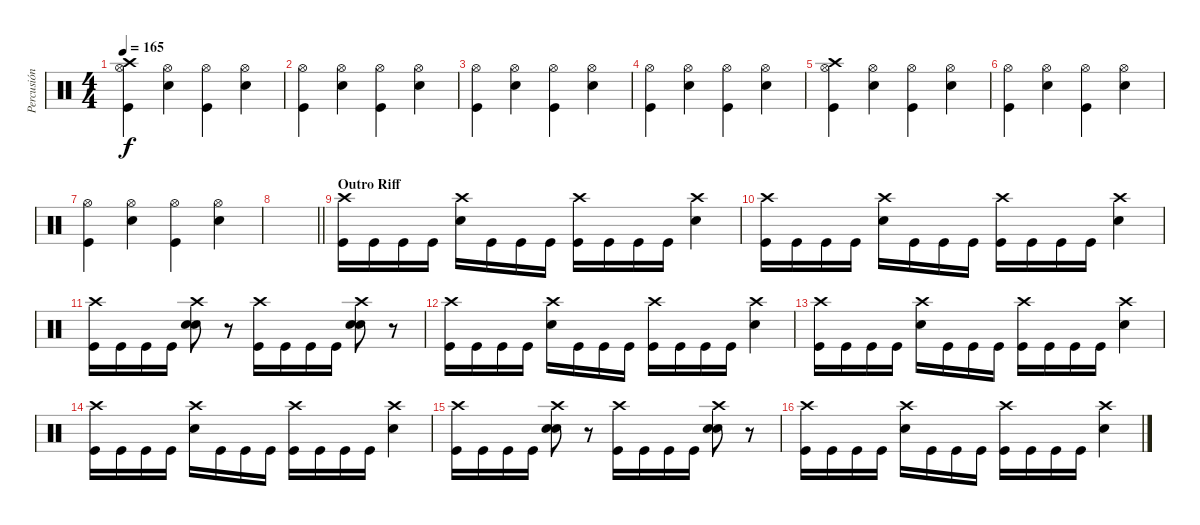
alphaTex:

\track ("Percusión" "Percusión") {instrument percussion}
\staff {score}
\articulation defaults
\ts (4 4)
\tempo 165
\clef neutral
\ks c
("Hi-Hat (open)" "Kick (hit)" "Crash high (hit)").4{dy f} ("Hi-Hat (open)" "Snare (hit) 2").4 ("Hi-Hat (open)" "Kick (hit)").4 ("Hi-Hat (open)" "Snare (hit) 2").4 |
("Hi-Hat (open)" "Kick (hit)").4 ("Hi-Hat (open)" "Snare (hit) 2").4 ("Hi-Hat (open)" "Kick (hit)").4 ("Hi-Hat (open)" "Snare (hit) 2").4 |
("Hi-Hat (open)" "Kick (hit)").4 ("Hi-Hat (open)" "Snare (hit) 2").4 ("Hi-Hat (open)" "Kick (hit)").4 ("Hi-Hat (open)" "Snare (hit) 2").4 |
("Hi-Hat (open)" "Kick (hit)").4 ("Hi-Hat (open)" "Snare (hit) 2").4 ("Hi-Hat (open)" "Kick (hit)").4 ("Hi-Hat (open)" "Snare (hit) 2").4 |
("Hi-Hat (open)" "Kick (hit)" "Crash high (hit)").4 ("Hi-Hat (open)" "Snare (hit) 2").4 ("Hi-Hat (open)" "Kick (hit)").4 ("Hi-Hat (open)" "Snare (hit) 2").4 |
("Hi-Hat (open)" "Kick (hit)").4 ("Hi-Hat (open)" "Snare (hit) 2").4 ("Hi-Hat (open)" "Kick (hit)").4 ("Hi-Hat (open)" "Snare (hit) 2").4 |
("Hi-Hat (open)" "Kick (hit)").4 ("Hi-Hat (open)" "Snare (hit) 2").4 ("Hi-Hat (open)" "Kick (hit)").4 ("Hi-Hat (open)" "Snare (hit) 2").4 |
\barLineRight lightlight
|
\section ("" "Outro Riff")
("Kick (hit)" "Crash high (hit)").16 "Kick (hit)".16 "Kick (hit)".16 "Kick (hit)".16 ("Snare (hit) 2" "Crash high (hit)").16 "Kick (hit)".16 "Kick (hit)".16 "Kick (hit)".16 ("Kick (hit)" "Crash high (hit)").16 "Kick (hit)".16 "Kick (hit)".16 "Kick (hit)".16 ("Snare (hit) 2" "Crash high (hit)").4 |
("Kick (hit)" "Crash high (hit)").16 "Kick (hit)".16 "Kick (hit)".16 "Kick (hit)".16 ("Snare (hit) 2" "Crash high (hit)").16 "Kick (hit)".16 "Kick (hit)".16 "Kick (hit)".16 ("Kick (hit)" "Crash high (hit)").16 "Kick (hit)".16 "Kick (hit)".16 "Kick (hit)".16 ("Snare (hit) 2" "Crash high (hit)").4 |
("Kick (hit)" "Crash high (hit)").16 "Kick (hit)".16 "Kick (hit)".16 "Kick (hit)".16 ("Snare (hit) 2" "Crash high (hit)" "Snare (hit) 2").8 r.8 ("Kick (hit)" "Crash high (hit)").16 "Kick (hit)".16 "Kick (hit)".16 "Kick (hit)".16 ("Snare (hit) 2" "Crash high (hit)" "Snare (hit) 2").8 r.8 |
("Kick (hit)" "Crash high (hit)").16 "Kick (hit)".16 "Kick (hit)".16 "Kick (hit)".16 ("Snare (hit) 2" "Crash high (hit)").16 "Kick (hit)".16 "Kick (hit)".16 "Kick (hit)".16 ("Kick (hit)" "Crash high (hit)").16 "Kick (hit)".16 "Kick (hit)".16 "Kick (hit)".16 ("Snare (hit) 2" "Crash high (hit)").4 |
("Kick (hit)" "Crash high (hit)").16 "Kick (hit)".16 "Kick (hit)".16 "Kick (hit)".16 ("Snare (hit) 2" "Crash high (hit)").16 "Kick (hit)".16 "Kick (hit)".16 "Kick (hit)".16 ("Kick (hit)" "Crash high (hit)").16 "Kick (hit)".16 "Kick (hit)".16 "Kick (hit)".16 ("Snare (hit) 2" "Crash high (hit)").4 |
("Kick (hit)" "Crash high (hit)").16 "Kick (hit)".16 "Kick (hit)".16 "Kick (hit)".16 ("Snare (hit) 2" "Crash high (hit)").16 "Kick (hit)".16 "Kick (hit)".16 "Kick (hit)".16 ("Kick (hit)" "Crash high (hit)").16 "Kick (hit)".16 "Kick (hit)".16 "Kick (hit)".16 ("Snare (hit) 2" "Crash high (hit)").4 |
("Kick (hit)" "Crash high (hit)").16 "Kick (hit)".16 "Kick (hit)".16 "Kick (hit)".16 ("Snare (hit) 2" "Crash high (hit)" "Snare (hit) 2").8 r.8 ("Kick (hit)" "Crash high (hit)").16 "Kick (hit)".16 "Kick (hit)".16 "Kick (hit)".16 ("Snare (hit) 2" "Crash high (hit)" "Snare (hit) 2").8 r.8 |
("Kick (hit)" "Crash high (hit)").16 "Kick (hit)".16 "Kick (hit)".16 "Kick (hit)".16 ("Snare (hit) 2" "Crash high (hit)").16 "Kick (hit)".16 "Kick (hit)".16 "Kick (hit)".16 ("Kick (hit)" "Crash high (hit)").16 "Kick (hit)".16 "Kick (hit)".16 "Kick (hit)".16 ("Snare (hit) 2" "Crash high (hit)").4
